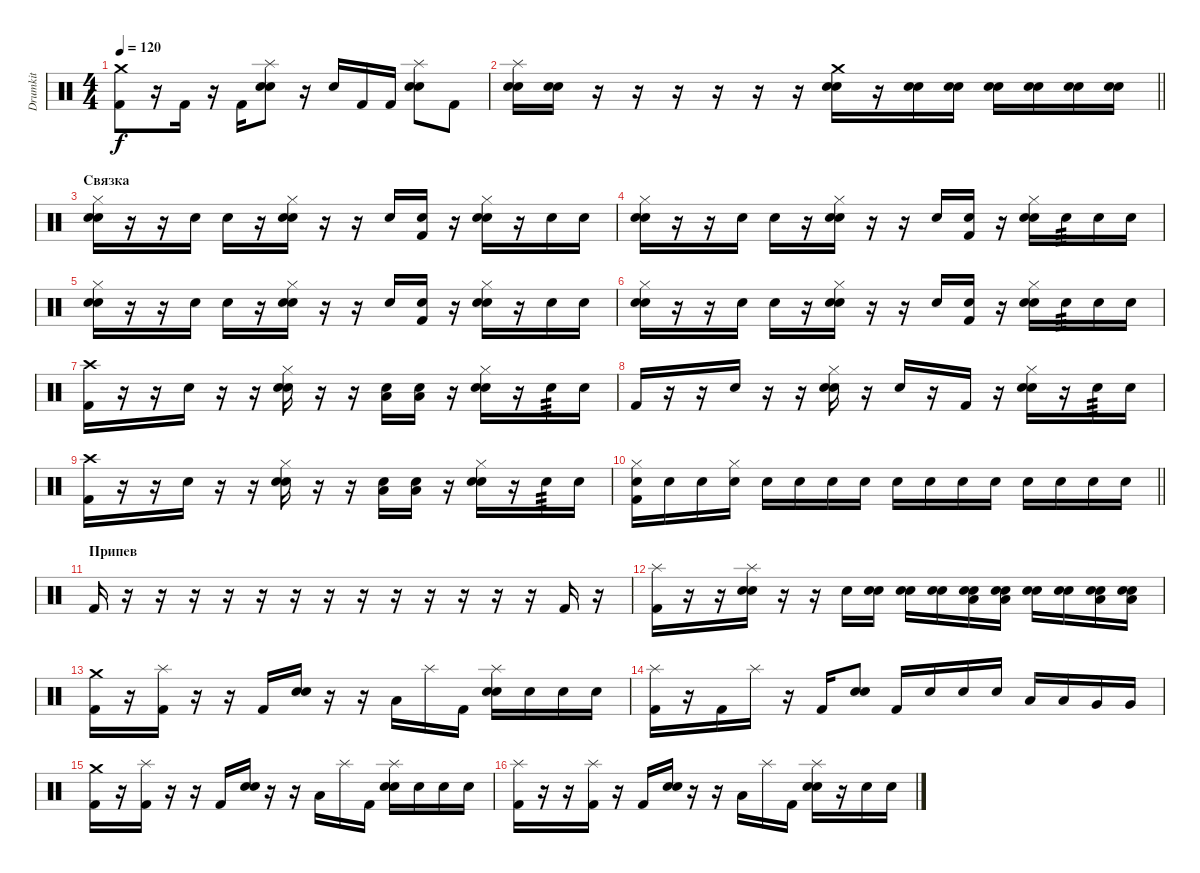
\track ("Drumkit" "Drumkit") {instrument percussion}
\staff {score}
\articulation defaults
\ts (4 4)
\tempo 120
\clef neutral
\ks c
("Crash medium (hit)" "Kick (hit) 2").8{dy f} r.16 "Kick (hit) 2".16 r.16 "Kick (hit) 2".16 ("Splash (hit)" "Electric Snare (hit)" "Snare (hit) 2").8 r.16 "Electric Snare (hit)".16 "Kick (hit) 2".16 "Kick (hit) 2".16 ("Splash (hit)" "Electric Snare (hit)" "Snare (hit) 2").8 "Kick (hit) 2".8 |
\barLineRight lightlight
("Splash (hit)" "Electric Snare (hit)" "Snare (hit) 2").16 ("Electric Snare (hit)" "Snare (hit) 2").16 r.16 r.16 r.16 r.16 r.16 r.16 ("Crash medium (hit)" "Electric Snare (hit)" "Snare (hit) 2").16 r.16 ("Electric Snare (hit)" "Snare (hit) 2").16 ("Electric Snare (hit)" "Snare (hit) 2").16 ("Electric Snare (hit)" "Snare (hit) 2").16 ("Electric Snare (hit)" "Snare (hit) 2").16 ("Electric Snare (hit)" "Snare (hit) 2").16 ("Electric Snare (hit)" "Snare (hit) 2").16 |
\section ("" "Связка")
("Hi-Hat (closed)" "Electric Snare (hit)" "Snare (hit) 2").16 r.16 r.16 "Electric Snare (hit)".16 "Electric Snare (hit)".16 r.16 ("Hi-Hat (closed)" "Electric Snare (hit)" "Snare (hit) 2").16 r.16 r.16 "Electric Snare (hit)".16 ("Electric Snare (hit)" "Kick (hit) 2").16 r.16 ("Hi-Hat (closed)" "Electric Snare (hit)" "Snare (hit) 2").16 r.16 "Electric Snare (hit)".16 "Electric Snare (hit)".16 |
("Hi-Hat (closed)" "Electric Snare (hit)" "Snare (hit) 2").16 r.16 r.16 "Electric Snare (hit)".16 "Electric Snare (hit)".16 r.16 ("Hi-Hat (closed)" "Electric Snare (hit)" "Snare (hit) 2").16 r.16 r.16 "Electric Snare (hit)".16 ("Electric Snare (hit)" "Kick (hit) 2").16 r.16 ("Hi-Hat (closed)" "Electric Snare (hit)" "Snare (hit) 2").16 "Electric Snare (hit)".16{tp 3} "Electric Snare (hit)".16 "Electric Snare (hit)".16 |
("Hi-Hat (closed)" "Electric Snare (hit)" "Snare (hit) 2").16 r.16 r.16 "Electric Snare (hit)".16 "Electric Snare (hit)".16 r.16 ("Hi-Hat (closed)" "Electric Snare (hit)" "Snare (hit) 2").16 r.16 r.16 "Electric Snare (hit)".16 ("Electric Snare (hit)" "Kick (hit) 2").16 r.16 ("Hi-Hat (closed)" "Electric Snare (hit)" "Snare (hit) 2").16 r.16 "Electric Snare (hit)".16 "Electric Snare (hit)".16 |
("Hi-Hat (closed)" "Electric Snare (hit)" "Snare (hit) 2").16 r.16 r.16 "Electric Snare (hit)".16 "Electric Snare (hit)".16 r.16 ("Hi-Hat (closed)" "Electric Snare (hit)" "Snare (hit) 2").16 r.16 r.16 "Electric Snare (hit)".16 ("Electric Snare (hit)" "Kick (hit) 2").16 r.16 ("Hi-Hat (closed)" "Electric Snare (hit)" "Snare (hit) 2").16 "Electric Snare (hit)".16{tp 3} "Electric Snare (hit)".16 "Electric Snare (hit)".16 |
("Crash high (hit)" "Kick (hit) 2").16 r.16 r.16 "Electric Snare (hit)".16 r.16 r.16 ("Hi-Hat (closed)" "Electric Snare (hit)" "Snare (hit) 2").16 r.16 r.16 ("Electric Snare (hit)" "Low Tom (hit)").16 ("Electric Snare (hit)" "Low Tom (hit)").16 r.16 ("Hi-Hat (closed)" "Electric Snare (hit)" "Snare (hit) 2").16 r.16 "Electric Snare (hit)".16{tp 3} "Electric Snare (hit)".16 |
"Kick (hit) 2".16 r.16 r.16 "Electric Snare (hit)".16 r.16 r.16 ("Hi-Hat (closed)" "Electric Snare (hit)" "Snare (hit) 2").16 r.16 "Electric Snare (hit)".16 r.16 "Kick (hit) 2".16 r.16 ("Hi-Hat (closed)" "Electric Snare (hit)" "Snare (hit) 2").16 r.16 "Electric Snare (hit)".16{tp 3} "Electric Snare (hit)".16 |
("Crash high (hit)" "Kick (hit) 2").16 r.16 r.16 "Electric Snare (hit)".16 r.16 r.16 ("Hi-Hat (closed)" "Electric Snare (hit)" "Snare (hit) 2").16 r.16 r.16 ("Electric Snare (hit)" "Low Tom (hit)").16 ("Electric Snare (hit)" "Low Tom (hit)").16 r.16 ("Hi-Hat (closed)" "Electric Snare (hit)" "Snare (hit) 2").16 r.16 "Electric Snare (hit)".16{tp 3} "Electric Snare (hit)".16 |
\barLineRight lightlight
("Hi-Hat (closed)" "Electric Snare (hit)" "Kick (hit) 2").16 "Electric Snare (hit)".16 "Electric Snare (hit)".16 ("Hi-Hat (closed)" "Electric Snare (hit)").16 "Electric Snare (hit)".16 "Electric Snare (hit)".16 "Electric Snare (hit)".16 "Electric Snare (hit)".16 "Electric Snare (hit)".16 "Electric Snare (hit)".16 "Electric Snare (hit)".16 "Electric Snare (hit)".16 "Electric Snare (hit)".16 "Electric Snare (hit)".16 "Electric Snare (hit)".16 "Electric Snare (hit)".16 |
\section ("" "Припев")
"Kick (hit) 2".16 r.16 r.16 r.16 r.16 r.16 r.16 r.16 r.16 r.16 r.16 r.16 r.16 r.16 "Kick (hit) 2".16 r.16 |
("Splash (hit)" "Kick (hit) 2").16 r.16 r.16 ("Splash (hit)" "Electric Snare (hit)" "Snare (hit) 2").16 r.16 r.16 "Electric Snare (hit)".16 ("Electric Snare (hit)" "Snare (hit) 2").16 ("Electric Snare (hit)" "Snare (hit) 2").16 ("Electric Snare (hit)" "Snare (hit) 2").16 ("Electric Snare (hit)" "Snare (hit) 2" "Low Tom (hit)").16 ("Electric Snare (hit)" "Snare (hit) 2" "Low Tom (hit)").16 ("Electric Snare (hit)" "Snare (hit) 2").16 ("Electric Snare (hit)" "Snare (hit) 2").16 ("Electric Snare (hit)" "Snare (hit) 2" "Low Tom (hit)").16 ("Electric Snare (hit)" "Snare (hit) 2" "Low Tom (hit)").16 |
("Crash medium (hit)" "Kick (hit) 2").16 r.16 ("Splash (hit)" "Kick (hit) 2").16 r.16 r.16 "Kick (hit) 2".16 ("Electric Snare (hit)" "Snare (hit) 2").16 r.16 r.16 "Low Tom (hit)".16 "Splash (hit)".16 "Kick (hit) 2".16 ("Splash (hit)" "Electric Snare (hit)" "Snare (hit) 2").16 "Electric Snare (hit)".16 "Electric Snare (hit)".16 "Electric Snare (hit)".16 |
("Splash (hit)" "Kick (hit) 2").16 r.16 "Kick (hit) 2".16 "Splash (hit)".16 r.16 "Kick (hit) 2".16 ("Electric Snare (hit)" "Snare (hit) 2").8 "Kick (hit) 2".16 "Electric Snare (hit)".16 "Electric Snare (hit)".16 "Electric Snare (hit)".16 "Low Tom (hit)".16 "Low Tom (hit)".16 "Very Low Tom (hit)".16 "Very Low Tom (hit)".16 |
("Crash medium (hit)" "Kick (hit) 2").16 r.16 ("Splash (hit)" "Kick (hit) 2").16 r.16 r.16 "Kick (hit) 2".16 ("Electric Snare (hit)" "Snare (hit) 2").16 r.16 r.16 "Low Tom (hit)".16 "Splash (hit)".16 "Kick (hit) 2".16 ("Splash (hit)" "Electric Snare (hit)" "Snare (hit) 2").16 "Electric Snare (hit)".16 "Electric Snare (hit)".16 "Electric Snare (hit)".16 |
("Splash (hit)" "Kick (hit) 2").16 r.16 r.16 ("Splash (hit)" "Kick (hit) 2").16 r.16 "Kick (hit) 2".16 ("Electric Snare (hit)" "Snare (hit) 2").16 r.16 r.16 "Low Tom (hit)".16 "Splash (hit)".16 "Kick (hit) 2".16 ("Splash (hit)" "Electric Snare (hit)" "Snare (hit) 2").16 r.16 "Electric Snare (hit)".16 "Electric Snare (hit)".16
